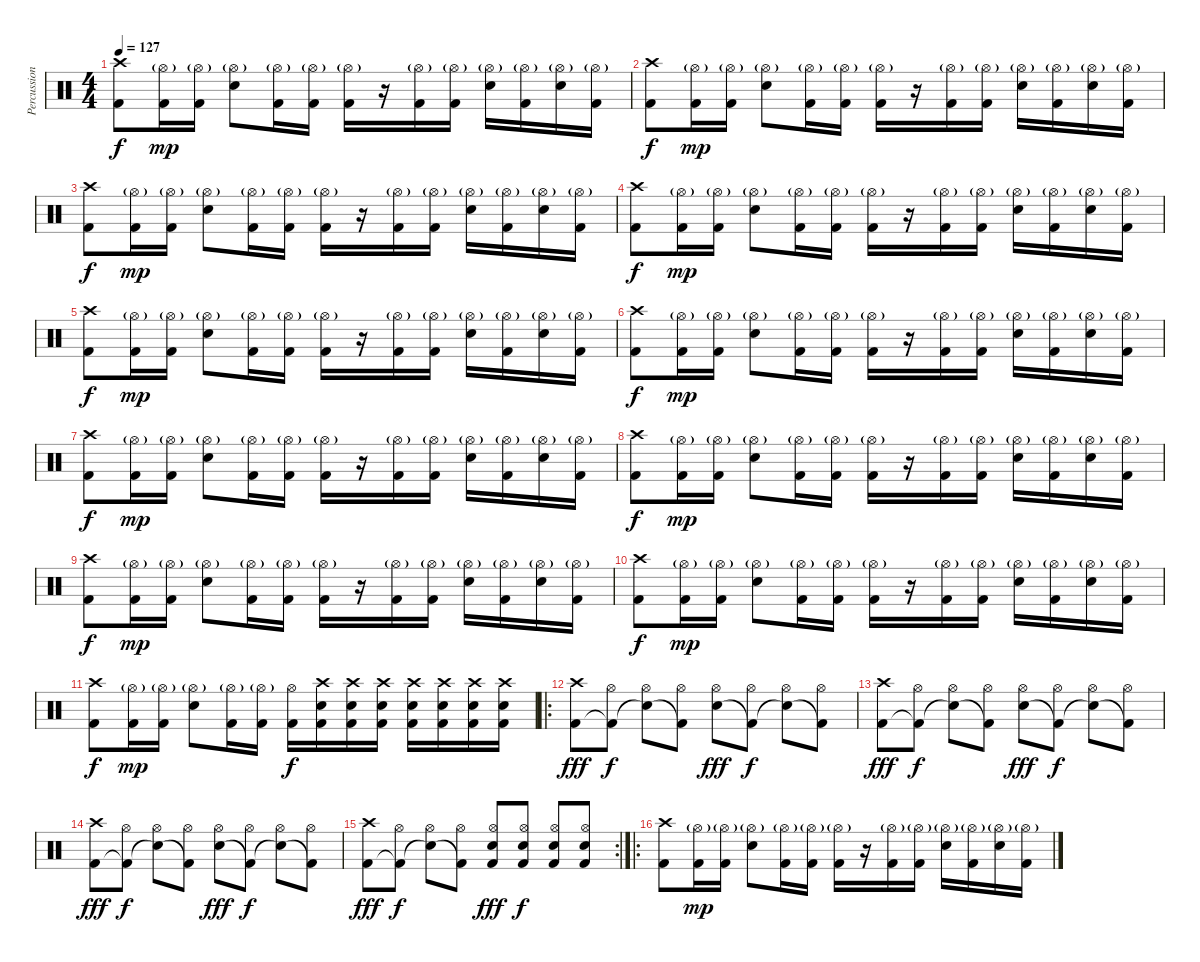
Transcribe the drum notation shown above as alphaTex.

\track ("Percussions" "Percussion") {instrument percussion}
\staff {score}
\articulation defaults
\ts (4 4)
\tempo 127
\clef neutral
\ks c
("Crash high (hit)" "Kick (hit) 2").8{dy f} ("Hi-Hat (open)"{g} "Kick (hit) 2").16{dy mp} ("Hi-Hat (open)"{g} "Kick (hit) 2").16 ("Hi-Hat (open)"{g} "Electric Snare (hit)").8 ("Hi-Hat (open)"{g} "Kick (hit) 2").16 ("Hi-Hat (open)"{g} "Kick (hit) 2").16 ("Hi-Hat (open)"{g} "Kick (hit) 2").16 r.16 ("Hi-Hat (open)"{g} "Kick (hit) 2").16 ("Hi-Hat (open)"{g} "Kick (hit) 2").16 ("Hi-Hat (open)"{g} "Electric Snare (hit)").16 ("Hi-Hat (open)"{g} "Kick (hit) 2").16 ("Hi-Hat (open)"{g} "Electric Snare (hit)").16 ("Hi-Hat (open)"{g} "Kick (hit) 2").16 |
("Crash high (hit)" "Kick (hit) 2").8{dy f} ("Hi-Hat (open)"{g} "Kick (hit) 2").16{dy mp} ("Hi-Hat (open)"{g} "Kick (hit) 2").16 ("Hi-Hat (open)"{g} "Electric Snare (hit)").8 ("Hi-Hat (open)"{g} "Kick (hit) 2").16 ("Hi-Hat (open)"{g} "Kick (hit) 2").16 ("Hi-Hat (open)"{g} "Kick (hit) 2").16 r.16 ("Hi-Hat (open)"{g} "Kick (hit) 2").16 ("Hi-Hat (open)"{g} "Kick (hit) 2").16 ("Hi-Hat (open)"{g} "Electric Snare (hit)").16 ("Hi-Hat (open)"{g} "Kick (hit) 2").16 ("Hi-Hat (open)"{g} "Electric Snare (hit)").16 ("Hi-Hat (open)"{g} "Kick (hit) 2").16 |
("Crash high (hit)" "Kick (hit) 2").8{dy f} ("Hi-Hat (open)"{g} "Kick (hit) 2").16{dy mp} ("Hi-Hat (open)"{g} "Kick (hit) 2").16 ("Hi-Hat (open)"{g} "Electric Snare (hit)").8 ("Hi-Hat (open)"{g} "Kick (hit) 2").16 ("Hi-Hat (open)"{g} "Kick (hit) 2").16 ("Hi-Hat (open)"{g} "Kick (hit) 2").16 r.16 ("Hi-Hat (open)"{g} "Kick (hit) 2").16 ("Hi-Hat (open)"{g} "Kick (hit) 2").16 ("Hi-Hat (open)"{g} "Electric Snare (hit)").16 ("Hi-Hat (open)"{g} "Kick (hit) 2").16 ("Hi-Hat (open)"{g} "Electric Snare (hit)").16 ("Hi-Hat (open)"{g} "Kick (hit) 2").16 |
("Crash high (hit)" "Kick (hit) 2").8{dy f} ("Hi-Hat (open)"{g} "Kick (hit) 2").16{dy mp} ("Hi-Hat (open)"{g} "Kick (hit) 2").16 ("Hi-Hat (open)"{g} "Electric Snare (hit)").8 ("Hi-Hat (open)"{g} "Kick (hit) 2").16 ("Hi-Hat (open)"{g} "Kick (hit) 2").16 ("Hi-Hat (open)"{g} "Kick (hit) 2").16 r.16 ("Hi-Hat (open)"{g} "Kick (hit) 2").16 ("Hi-Hat (open)"{g} "Kick (hit) 2").16 ("Hi-Hat (open)"{g} "Electric Snare (hit)").16 ("Hi-Hat (open)"{g} "Kick (hit) 2").16 ("Hi-Hat (open)"{g} "Electric Snare (hit)").16 ("Hi-Hat (open)"{g} "Kick (hit) 2").16 |
("Crash high (hit)" "Kick (hit) 2").8{dy f} ("Hi-Hat (open)"{g} "Kick (hit) 2").16{dy mp} ("Hi-Hat (open)"{g} "Kick (hit) 2").16 ("Hi-Hat (open)"{g} "Electric Snare (hit)").8 ("Hi-Hat (open)"{g} "Kick (hit) 2").16 ("Hi-Hat (open)"{g} "Kick (hit) 2").16 ("Hi-Hat (open)"{g} "Kick (hit) 2").16 r.16 ("Hi-Hat (open)"{g} "Kick (hit) 2").16 ("Hi-Hat (open)"{g} "Kick (hit) 2").16 ("Hi-Hat (open)"{g} "Electric Snare (hit)").16 ("Hi-Hat (open)"{g} "Kick (hit) 2").16 ("Hi-Hat (open)"{g} "Electric Snare (hit)").16 ("Hi-Hat (open)"{g} "Kick (hit) 2").16 |
("Crash high (hit)" "Kick (hit) 2").8{dy f} ("Hi-Hat (open)"{g} "Kick (hit) 2").16{dy mp} ("Hi-Hat (open)"{g} "Kick (hit) 2").16 ("Hi-Hat (open)"{g} "Electric Snare (hit)").8 ("Hi-Hat (open)"{g} "Kick (hit) 2").16 ("Hi-Hat (open)"{g} "Kick (hit) 2").16 ("Hi-Hat (open)"{g} "Kick (hit) 2").16 r.16 ("Hi-Hat (open)"{g} "Kick (hit) 2").16 ("Hi-Hat (open)"{g} "Kick (hit) 2").16 ("Hi-Hat (open)"{g} "Electric Snare (hit)").16 ("Hi-Hat (open)"{g} "Kick (hit) 2").16 ("Hi-Hat (open)"{g} "Electric Snare (hit)").16 ("Hi-Hat (open)"{g} "Kick (hit) 2").16 |
("Crash high (hit)" "Kick (hit) 2").8{dy f} ("Hi-Hat (open)"{g} "Kick (hit) 2").16{dy mp} ("Hi-Hat (open)"{g} "Kick (hit) 2").16 ("Hi-Hat (open)"{g} "Electric Snare (hit)").8 ("Hi-Hat (open)"{g} "Kick (hit) 2").16 ("Hi-Hat (open)"{g} "Kick (hit) 2").16 ("Hi-Hat (open)"{g} "Kick (hit) 2").16 r.16 ("Hi-Hat (open)"{g} "Kick (hit) 2").16 ("Hi-Hat (open)"{g} "Kick (hit) 2").16 ("Hi-Hat (open)"{g} "Electric Snare (hit)").16 ("Hi-Hat (open)"{g} "Kick (hit) 2").16 ("Hi-Hat (open)"{g} "Electric Snare (hit)").16 ("Hi-Hat (open)"{g} "Kick (hit) 2").16 |
("Crash high (hit)" "Kick (hit) 2").8{dy f} ("Hi-Hat (open)"{g} "Kick (hit) 2").16{dy mp} ("Hi-Hat (open)"{g} "Kick (hit) 2").16 ("Hi-Hat (open)"{g} "Electric Snare (hit)").8 ("Hi-Hat (open)"{g} "Kick (hit) 2").16 ("Hi-Hat (open)"{g} "Kick (hit) 2").16 ("Hi-Hat (open)"{g} "Kick (hit) 2").16 r.16 ("Hi-Hat (open)"{g} "Kick (hit) 2").16 ("Hi-Hat (open)"{g} "Kick (hit) 2").16 ("Hi-Hat (open)"{g} "Electric Snare (hit)").16 ("Hi-Hat (open)"{g} "Kick (hit) 2").16 ("Hi-Hat (open)"{g} "Electric Snare (hit)").16 ("Hi-Hat (open)"{g} "Kick (hit) 2").16 |
("Crash high (hit)" "Kick (hit) 2").8{dy f} ("Hi-Hat (open)"{g} "Kick (hit) 2").16{dy mp} ("Hi-Hat (open)"{g} "Kick (hit) 2").16 ("Hi-Hat (open)"{g} "Electric Snare (hit)").8 ("Hi-Hat (open)"{g} "Kick (hit) 2").16 ("Hi-Hat (open)"{g} "Kick (hit) 2").16 ("Hi-Hat (open)"{g} "Kick (hit) 2").16 r.16 ("Hi-Hat (open)"{g} "Kick (hit) 2").16 ("Hi-Hat (open)"{g} "Kick (hit) 2").16 ("Hi-Hat (open)"{g} "Electric Snare (hit)").16 ("Hi-Hat (open)"{g} "Kick (hit) 2").16 ("Hi-Hat (open)"{g} "Electric Snare (hit)").16 ("Hi-Hat (open)"{g} "Kick (hit) 2").16 |
("Crash high (hit)" "Kick (hit) 2").8{dy f} ("Hi-Hat (open)"{g} "Kick (hit) 2").16{dy mp} ("Hi-Hat (open)"{g} "Kick (hit) 2").16 ("Hi-Hat (open)"{g} "Electric Snare (hit)").8 ("Hi-Hat (open)"{g} "Kick (hit) 2").16 ("Hi-Hat (open)"{g} "Kick (hit) 2").16 ("Hi-Hat (open)"{g} "Kick (hit) 2").16 r.16 ("Hi-Hat (open)"{g} "Kick (hit) 2").16 ("Hi-Hat (open)"{g} "Kick (hit) 2").16 ("Hi-Hat (open)"{g} "Electric Snare (hit)").16 ("Hi-Hat (open)"{g} "Kick (hit) 2").16 ("Hi-Hat (open)"{g} "Electric Snare (hit)").16 ("Hi-Hat (open)"{g} "Kick (hit) 2").16 |
("Crash high (hit)" "Kick (hit) 2").8{dy f} ("Hi-Hat (open)"{g} "Kick (hit) 2").16{dy mp} ("Hi-Hat (open)"{g} "Kick (hit) 2").16 ("Hi-Hat (open)"{g} "Electric Snare (hit)").8 ("Hi-Hat (open)"{g} "Kick (hit) 2").16 ("Hi-Hat (open)"{g} "Kick (hit) 2").16 ("Hi-Hat (open)" "Kick (hit) 2").16{dy f} ("Crash high (hit)" "Kick (hit) 2" "Electric Snare (hit)").16 ("Crash high (hit)" "Kick (hit) 2" "Electric Snare (hit)").16 ("Crash high (hit)" "Kick (hit) 2" "Electric Snare (hit)").16 ("Crash high (hit)" "Kick (hit) 2" "Electric Snare (hit)").16 ("Crash high (hit)" "Kick (hit) 2" "Electric Snare (hit)").16 ("Crash high (hit)" "Kick (hit) 2" "Electric Snare (hit)").16 ("Crash high (hit)" "Kick (hit) 2" "Electric Snare (hit)").16 |
\ro
("Crash high (hit)" "Kick (hit) 2").8{dy fff} ("Hi-Hat (open)" "Kick (hit) 2"{t}).8{dy f} ("Hi-Hat (open)" "Electric Snare (hit)"{t}).8 ("Hi-Hat (open)" "Kick (hit) 2"{t}).8 ("Hi-Hat (open)" "Electric Snare (hit)").8{dy fff} ("Hi-Hat (open)" "Kick (hit) 2"{t}).8{dy f} ("Hi-Hat (open)" "Electric Snare (hit)"{t}).8 ("Hi-Hat (open)" "Kick (hit) 2"{t}).8 |
("Crash high (hit)" "Kick (hit) 2").8{dy fff} ("Hi-Hat (open)" "Kick (hit) 2"{t}).8{dy f} ("Hi-Hat (open)" "Electric Snare (hit)"{t}).8 ("Hi-Hat (open)" "Kick (hit) 2"{t}).8 ("Hi-Hat (open)" "Electric Snare (hit)").8{dy fff} ("Hi-Hat (open)" "Kick (hit) 2"{t}).8{dy f} ("Hi-Hat (open)" "Electric Snare (hit)"{t}).8 ("Hi-Hat (open)" "Kick (hit) 2"{t}).8 |
("Crash high (hit)" "Kick (hit) 2").8{dy fff} ("Hi-Hat (open)" "Kick (hit) 2"{t}).8{dy f} ("Hi-Hat (open)" "Electric Snare (hit)"{t}).8 ("Hi-Hat (open)" "Kick (hit) 2"{t}).8 ("Hi-Hat (open)" "Electric Snare (hit)").8{dy fff} ("Hi-Hat (open)" "Kick (hit) 2"{t}).8{dy f} ("Hi-Hat (open)" "Electric Snare (hit)"{t}).8 ("Hi-Hat (open)" "Kick (hit) 2"{t}).8 |
\rc 2
("Crash high (hit)" "Kick (hit) 2").8{dy fff} ("Hi-Hat (open)" "Kick (hit) 2"{t}).8{dy f} ("Hi-Hat (open)" "Electric Snare (hit)"{t}).8 ("Hi-Hat (open)" "Kick (hit) 2"{t}).8 ("Hi-Hat (open)" "Kick (hit) 2" "Electric Snare (hit)").8{dy fff} ("Hi-Hat (open)" "Kick (hit) 2" "Electric Snare (hit)").8{dy f} ("Hi-Hat (open)" "Kick (hit) 2" "Electric Snare (hit)").8 ("Hi-Hat (open)" "Kick (hit) 2" "Electric Snare (hit)").8 |
\ro
("Crash high (hit)" "Kick (hit) 2").8 ("Hi-Hat (open)"{g} "Kick (hit) 2").16{dy mp} ("Hi-Hat (open)"{g} "Kick (hit) 2").16 ("Hi-Hat (open)"{g} "Electric Snare (hit)").8 ("Hi-Hat (open)"{g} "Kick (hit) 2").16 ("Hi-Hat (open)"{g} "Kick (hit) 2").16 ("Hi-Hat (open)"{g} "Kick (hit) 2").16 r.16 ("Hi-Hat (open)"{g} "Kick (hit) 2").16 ("Hi-Hat (open)"{g} "Kick (hit) 2").16 ("Hi-Hat (open)"{g} "Electric Snare (hit)").16 ("Hi-Hat (open)"{g} "Kick (hit) 2").16 ("Hi-Hat (open)"{g} "Electric Snare (hit)").16 ("Hi-Hat (open)"{g} "Kick (hit) 2").16
